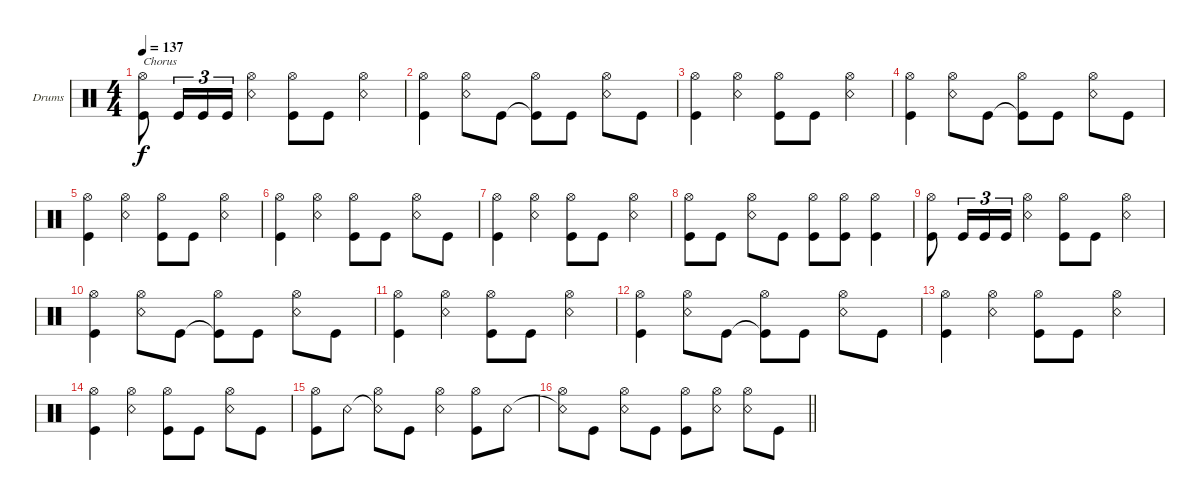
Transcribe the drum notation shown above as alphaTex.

\defaultSystemsLayout 4
\bracketExtendMode groupsimilarinstruments
\firstSystemTrackNameOrientation horizontal
\otherSystemsTrackNameOrientation horizontal
\track ("Drums" "Drums") {instrument percussion}
\staff {score}
\articulation defaults
\ts (4 4)
\tempo 137
\clef neutral
\scale
0.333333
\ks c
("Kick (hit)" "Hi-Hat (open)").8{txt "Chorus" dy f} "Kick (hit)".16{tu (3 2)} "Kick (hit)".16{tu (3 2)} "Kick (hit)".16{tu (3 2)} ("Snare (rim shot)" "Hi-Hat (open)").4 ("Kick (hit)" "Hi-Hat (open)").8 "Kick (hit)".8 ("Snare (rim shot)" "Hi-Hat (open)").4 |
\scale
0.333333 ("Kick (hit)" "Hi-Hat (open)").4 ("Snare (rim shot)" "Hi-Hat (open)").8 "Kick (hit)".8 ("Kick (hit)"{t} "Hi-Hat (open)").8 "Kick (hit)".8 ("Snare (rim shot)" "Hi-Hat (open)").8 "Kick (hit)".8 |
\scale
0.333333 ("Kick (hit)" "Hi-Hat (open)").4 ("Snare (rim shot)" "Hi-Hat (open)").4 ("Kick (hit)" "Hi-Hat (open)").8 "Kick (hit)".8 ("Snare (rim shot)" "Hi-Hat (open)").4 |
\scale
0.333333 ("Kick (hit)" "Hi-Hat (open)").4 ("Snare (rim shot)" "Hi-Hat (open)").8 "Kick (hit)".8 ("Kick (hit)"{t} "Hi-Hat (open)").8 "Kick (hit)".8 ("Snare (rim shot)" "Hi-Hat (open)").8 "Kick (hit)".8 |
\scale
0.333333 ("Kick (hit)" "Hi-Hat (open)").4 ("Snare (rim shot)" "Hi-Hat (open)").4 ("Kick (hit)" "Hi-Hat (open)").8 "Kick (hit)".8 ("Snare (rim shot)" "Hi-Hat (open)").4 |
\scale
0.333333 ("Kick (hit)" "Hi-Hat (open)").4 ("Snare (rim shot)" "Hi-Hat (open)").4 ("Kick (hit)" "Hi-Hat (open)").8 "Kick (hit)".8 ("Snare (rim shot)" "Hi-Hat (open)").8 "Kick (hit)".8 |
\scale
0.333333 ("Kick (hit)" "Hi-Hat (open)").4 ("Snare (rim shot)" "Hi-Hat (open)").4 ("Kick (hit)" "Hi-Hat (open)").8 "Kick (hit)".8 ("Snare (rim shot)" "Hi-Hat (open)").4 |
\scale
0.333333 ("Kick (hit)" "Hi-Hat (open)").8 "Kick (hit)".8 ("Snare (rim shot)" "Hi-Hat (open)").8 "Kick (hit)".8 ("Kick (hit)" "Hi-Hat (open)").8 ("Kick (hit)" "Hi-Hat (open)").8 ("Kick (hit)" "Hi-Hat (open)").4 |
\scale
0.333333 ("Kick (hit)" "Hi-Hat (open)").8 "Kick (hit)".16{tu (3 2)} "Kick (hit)".16{tu (3 2)} "Kick (hit)".16{tu (3 2)} ("Snare (rim shot)" "Hi-Hat (open)").4 ("Kick (hit)" "Hi-Hat (open)").8 "Kick (hit)".8 ("Snare (rim shot)" "Hi-Hat (open)").4 |
\scale
0.333333 ("Kick (hit)" "Hi-Hat (open)").4 ("Snare (rim shot)" "Hi-Hat (open)").8 "Kick (hit)".8 ("Kick (hit)"{t} "Hi-Hat (open)").8 "Kick (hit)".8 ("Snare (rim shot)" "Hi-Hat (open)").8 "Kick (hit)".8 |
\scale
0.333333 ("Kick (hit)" "Hi-Hat (open)").4 ("Snare (rim shot)" "Hi-Hat (open)").4 ("Kick (hit)" "Hi-Hat (open)").8 "Kick (hit)".8 ("Snare (rim shot)" "Hi-Hat (open)").4 |
\scale
0.333333 ("Kick (hit)" "Hi-Hat (open)").4 ("Snare (rim shot)" "Hi-Hat (open)").8 "Kick (hit)".8 ("Kick (hit)"{t} "Hi-Hat (open)").8 "Kick (hit)".8 ("Snare (rim shot)" "Hi-Hat (open)").8 "Kick (hit)".8 |
\scale
0.333333 ("Kick (hit)" "Hi-Hat (open)").4 ("Snare (rim shot)" "Hi-Hat (open)").4 ("Kick (hit)" "Hi-Hat (open)").8 "Kick (hit)".8 ("Snare (rim shot)" "Hi-Hat (open)").4 |
\scale
0.333333 ("Kick (hit)" "Hi-Hat (open)").4 ("Snare (rim shot)" "Hi-Hat (open)").4 ("Kick (hit)" "Hi-Hat (open)").8 "Kick (hit)".8 ("Snare (rim shot)" "Hi-Hat (open)").8 "Kick (hit)".8 |
\scale
0.333333 ("Kick (hit)" "Hi-Hat (open)").8 "Snare (rim shot)".8 ("Snare (rim shot)"{t} "Hi-Hat (open)").8 "Kick (hit)".8 ("Snare (rim shot)" "Hi-Hat (open)").4 ("Kick (hit)" "Hi-Hat (open)").8 "Snare (rim shot)".8 |
\scale
0.333333
\barLineRight lightlight
("Snare (rim shot)"{t} "Hi-Hat (open)").8 "Kick (hit)".8 ("Snare (rim shot)" "Hi-Hat (open)").8 "Kick (hit)".8 ("Kick (hit)" "Hi-Hat (open)").8 ("Snare (rim shot)" "Hi-Hat (open)").8 ("Snare (rim shot)" "Hi-Hat (open)").8 "Kick (hit)".8
